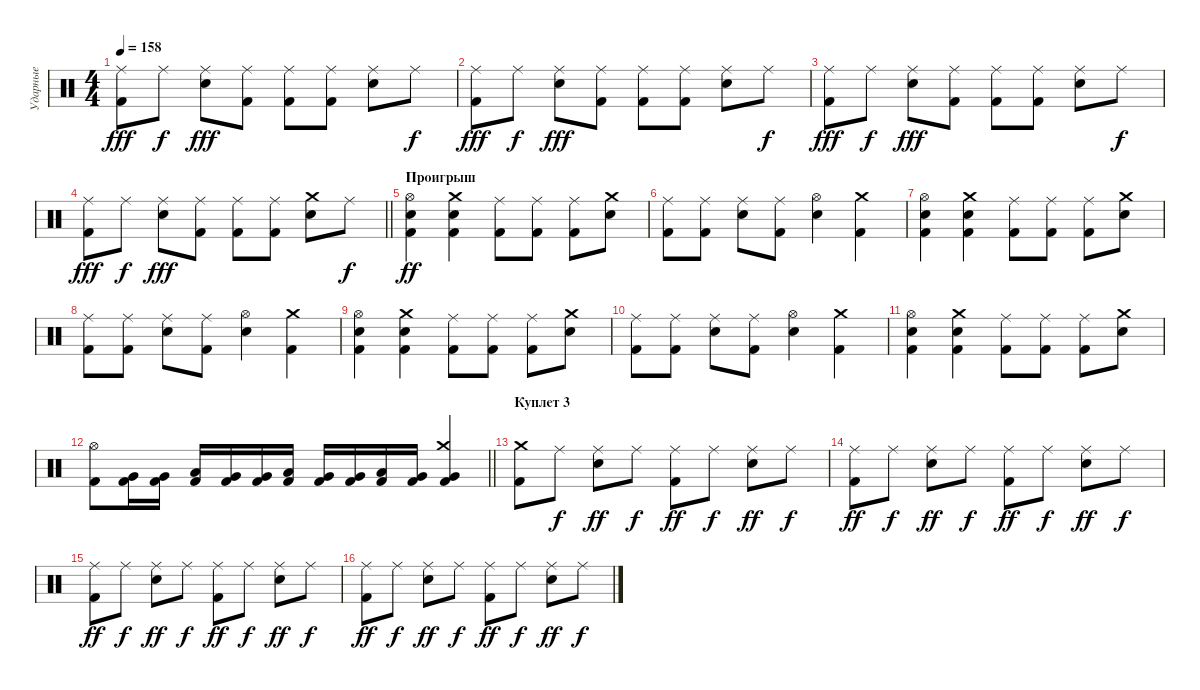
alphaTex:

\track ("Ударные" "Ударные") {instrument percussion}
\staff {score}
\articulation defaults
\ts (4 4)
\tempo 158
\clef neutral
\ks c
("Ride (middle)" "Kick (hit) 2").8{dy fff} "Ride (middle)".8{dy f} ("Ride (middle)" "Electric Snare (hit)").8{dy fff} ("Ride (middle)" "Kick (hit) 2").8 ("Ride (middle)" "Kick (hit) 2").8 ("Ride (middle)" "Kick (hit) 2").8 ("Ride (middle)" "Snare (hit) 2").8 "Ride (middle)".8{dy f} |
("Ride (middle)" "Kick (hit) 2").8{dy fff} "Ride (middle)".8{dy f} ("Ride (middle)" "Electric Snare (hit)").8{dy fff} ("Ride (middle)" "Kick (hit) 2").8 ("Ride (middle)" "Kick (hit) 2").8 ("Ride (middle)" "Kick (hit) 2").8 ("Ride (middle)" "Snare (hit) 2").8 "Ride (middle)".8{dy f} |
("Ride (middle)" "Kick (hit) 2").8{dy fff} "Ride (middle)".8{dy f} ("Ride (middle)" "Electric Snare (hit)").8{dy fff} ("Ride (middle)" "Kick (hit) 2").8 ("Ride (middle)" "Kick (hit) 2").8 ("Ride (middle)" "Kick (hit) 2").8 ("Ride (middle)" "Snare (hit) 2").8 "Ride (middle)".8{dy f} |
\barLineRight lightlight
("Ride (middle)" "Kick (hit) 2").8{dy fff} "Ride (middle)".8{dy f} ("Ride (middle)" "Electric Snare (hit)").8{dy fff} ("Ride (middle)" "Kick (hit) 2").8 ("Ride (middle)" "Kick (hit) 2").8 ("Ride (middle)" "Kick (hit) 2").8 ("Crash medium (hit)" "Snare (hit) 2").8 "Ride (middle)".8{dy f} |
\section ("" "Проигрыш")
("Hi-Hat (open)" "Kick (hit) 2" "Electric Snare (hit)").4{dy ff} ("Crash medium (hit)" "Kick (hit) 2" "Electric Snare (hit)").4 ("Ride (middle)" "Kick (hit) 2").8 ("Ride (middle)" "Kick (hit) 2").8 ("Ride (middle)" "Kick (hit) 2").8 ("Crash medium (hit)" "Electric Snare (hit)").8 |
("Ride (middle)" "Kick (hit) 2").8 ("Ride (middle)" "Kick (hit) 2").8 ("Ride (middle)" "Electric Snare (hit)").8 ("Ride (middle)" "Kick (hit) 2").8 ("Hi-Hat (open)" "Electric Snare (hit)").4 ("Crash medium (hit)" "Kick (hit) 2").4 |
("Hi-Hat (open)" "Kick (hit) 2" "Electric Snare (hit)").4 ("Crash medium (hit)" "Kick (hit) 2" "Electric Snare (hit)").4 ("Ride (middle)" "Kick (hit) 2").8 ("Ride (middle)" "Kick (hit) 2").8 ("Ride (middle)" "Kick (hit) 2").8 ("Crash medium (hit)" "Electric Snare (hit)").8 |
("Ride (middle)" "Kick (hit) 2").8 ("Ride (middle)" "Kick (hit) 2").8 ("Ride (middle)" "Electric Snare (hit)").8 ("Ride (middle)" "Kick (hit) 2").8 ("Hi-Hat (open)" "Electric Snare (hit)").4 ("Crash medium (hit)" "Kick (hit) 2").4 |
("Hi-Hat (open)" "Kick (hit) 2" "Electric Snare (hit)").4 ("Crash medium (hit)" "Kick (hit) 2" "Electric Snare (hit)").4 ("Ride (middle)" "Kick (hit) 2").8 ("Ride (middle)" "Kick (hit) 2").8 ("Ride (middle)" "Kick (hit) 2").8 ("Crash medium (hit)" "Electric Snare (hit)").8 |
("Ride (middle)" "Kick (hit) 2").8 ("Ride (middle)" "Kick (hit) 2").8 ("Ride (middle)" "Electric Snare (hit)").8 ("Ride (middle)" "Kick (hit) 2").8 ("Hi-Hat (open)" "Electric Snare (hit)").4 ("Crash medium (hit)" "Kick (hit) 2").4 |
("Hi-Hat (open)" "Kick (hit) 2" "Electric Snare (hit)").4 ("Crash medium (hit)" "Kick (hit) 2" "Electric Snare (hit)").4 ("Ride (middle)" "Kick (hit) 2").8 ("Ride (middle)" "Kick (hit) 2").8 ("Ride (middle)" "Kick (hit) 2").8 ("Crash medium (hit)" "Electric Snare (hit)").8 |
\barLineRight lightlight
("Hi-Hat (open)" "Kick (hit) 2").8 ("Kick (hit) 2" "Very Low Tom (hit)").16 ("Kick (hit) 2" "Very Low Tom (hit)").16 ("Kick (hit) 2" "Low Floor Tom (hit)").16 ("Kick (hit) 2" "Very Low Tom (hit)").16 ("Kick (hit) 2" "Very Low Tom (hit)").16 ("Kick (hit) 2" "Low Floor Tom (hit)").16 ("Kick (hit) 2" "Very Low Tom (hit)").16 ("Kick (hit) 2" "Very Low Tom (hit)").16 ("Kick (hit) 2" "Low Floor Tom (hit)").16 ("Kick (hit) 2" "Very Low Tom (hit)").16 ("Crash medium (hit)" "Kick (hit) 2" "Very Low Tom (hit)").4 |
\section ("" "Куплет 3")
("Crash medium (hit)" "Kick (hit) 2").8 "Ride (middle)".8{dy f} ("Ride (middle)" "Electric Snare (hit)").8{dy ff} "Ride (middle)".8{dy f} ("Ride (middle)" "Kick (hit) 2").8{dy ff} "Ride (middle)".8{dy f} ("Ride (middle)" "Electric Snare (hit)").8{dy ff} "Ride (middle)".8{dy f} |
("Ride (middle)" "Kick (hit) 2").8{dy ff} "Ride (middle)".8{dy f} ("Ride (middle)" "Electric Snare (hit)").8{dy ff} "Ride (middle)".8{dy f} ("Ride (middle)" "Kick (hit) 2").8{dy ff} "Ride (middle)".8{dy f} ("Ride (middle)" "Electric Snare (hit)").8{dy ff} "Ride (middle)".8{dy f} |
("Ride (middle)" "Kick (hit) 2").8{dy ff} "Ride (middle)".8{dy f} ("Ride (middle)" "Electric Snare (hit)").8{dy ff} "Ride (middle)".8{dy f} ("Ride (middle)" "Kick (hit) 2").8{dy ff} "Ride (middle)".8{dy f} ("Ride (middle)" "Electric Snare (hit)").8{dy ff} "Ride (middle)".8{dy f} |
("Ride (middle)" "Kick (hit) 2").8{dy ff} "Ride (middle)".8{dy f} ("Ride (middle)" "Electric Snare (hit)").8{dy ff} "Ride (middle)".8{dy f} ("Ride (middle)" "Kick (hit) 2").8{dy ff} "Ride (middle)".8{dy f} ("Ride (middle)" "Electric Snare (hit)").8{dy ff} "Ride (middle)".8{dy f}
